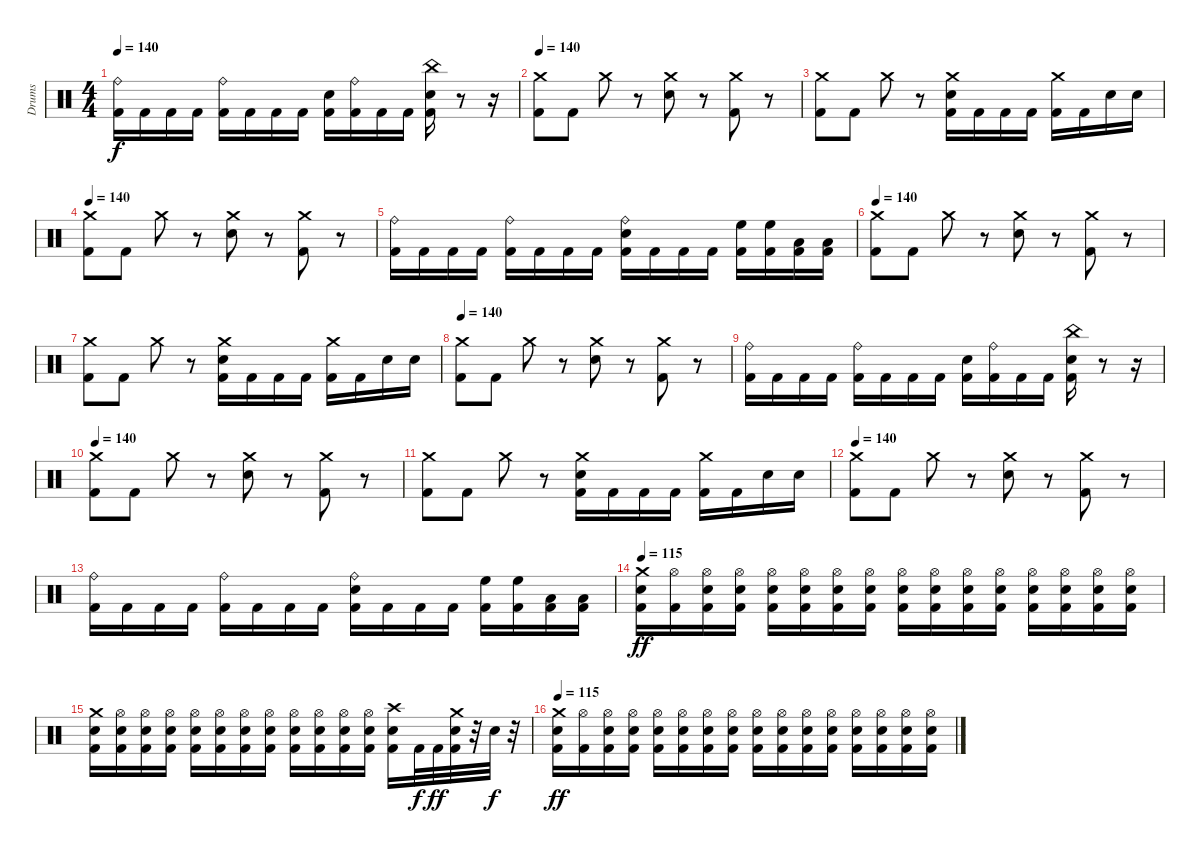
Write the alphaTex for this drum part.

\track ("Drums" "Drums") {instrument percussion}
\staff {score}
\articulation defaults
\ts (4 4)
\tempo 140
\clef neutral
\ks c
("Ride (bell)" "Kick (hit) 2").16{dy f} "Kick (hit) 2".16 "Kick (hit) 2".16 "Kick (hit) 2".16 ("Ride (bell)" "Kick (hit) 2").16 "Kick (hit) 2".16 "Kick (hit) 2".16 "Kick (hit) 2".16 ("Electric Snare (hit)" "Kick (hit) 2").16 ("Ride (bell)" "Kick (hit) 2").16 "Kick (hit) 2".16 "Kick (hit) 2".16 ("China (hit)" "Electric Snare (hit)" "Kick (hit) 2").16 r.8 r.16 |
\tempo 140
("Crash medium (hit)" "Kick (hit) 2").8 "Kick (hit) 2".8 "Crash medium (hit)".8 r.8 ("Crash medium (hit)" "Electric Snare (hit)").8 r.8 ("Crash medium (hit)" "Kick (hit) 2").8 r.8 |
("Crash medium (hit)" "Kick (hit) 2").8 "Kick (hit) 2".8 "Crash medium (hit)".8 r.8 ("Crash medium (hit)" "Electric Snare (hit)" "Kick (hit) 2").16 "Kick (hit) 2".16 "Kick (hit) 2".16 "Kick (hit) 2".16 ("Crash medium (hit)" "Kick (hit) 2").16 "Kick (hit) 2".16 "Electric Snare (hit)".16 "Electric Snare (hit)".16 |
\tempo 140
("Crash medium (hit)" "Kick (hit) 2").8 "Kick (hit) 2".8 "Crash medium (hit)".8 r.8 ("Crash medium (hit)" "Electric Snare (hit)").8 r.8 ("Crash medium (hit)" "Kick (hit) 2").8 r.8 |
("Ride (bell)" "Kick (hit) 2").16 "Kick (hit) 2".16 "Kick (hit) 2".16 "Kick (hit) 2".16 ("Ride (bell)" "Kick (hit) 2").16 "Kick (hit) 2".16 "Kick (hit) 2".16 "Kick (hit) 2".16 ("Ride (bell)" "Electric Snare (hit)" "Kick (hit) 2").16 "Kick (hit) 2".16 "Kick (hit) 2".16 "Kick (hit) 2".16 ("High Floor Tom (hit)" "Kick (hit) 2").16 ("High Floor Tom (hit)" "Kick (hit) 2").16 ("Low Tom (hit)" "Kick (hit) 2").16 ("Low Tom (hit)" "Kick (hit) 2").16 |
\tempo 140
("Crash medium (hit)" "Kick (hit) 2").8 "Kick (hit) 2".8 "Crash medium (hit)".8 r.8 ("Crash medium (hit)" "Electric Snare (hit)").8 r.8 ("Crash medium (hit)" "Kick (hit) 2").8 r.8 |
("Crash medium (hit)" "Kick (hit) 2").8 "Kick (hit) 2".8 "Crash medium (hit)".8 r.8 ("Crash medium (hit)" "Electric Snare (hit)" "Kick (hit) 2").16 "Kick (hit) 2".16 "Kick (hit) 2".16 "Kick (hit) 2".16 ("Crash medium (hit)" "Kick (hit) 2").16 "Kick (hit) 2".16 "Electric Snare (hit)".16 "Electric Snare (hit)".16 |
\tempo 140
("Crash medium (hit)" "Kick (hit) 2").8 "Kick (hit) 2".8 "Crash medium (hit)".8 r.8 ("Crash medium (hit)" "Electric Snare (hit)").8 r.8 ("Crash medium (hit)" "Kick (hit) 2").8 r.8 |
("Ride (bell)" "Kick (hit) 2").16 "Kick (hit) 2".16 "Kick (hit) 2".16 "Kick (hit) 2".16 ("Ride (bell)" "Kick (hit) 2").16 "Kick (hit) 2".16 "Kick (hit) 2".16 "Kick (hit) 2".16 ("Electric Snare (hit)" "Kick (hit) 2").16 ("Ride (bell)" "Kick (hit) 2").16 "Kick (hit) 2".16 "Kick (hit) 2".16 ("China (hit)" "Electric Snare (hit)" "Kick (hit) 2").16 r.8 r.16 |
\tempo 140
("Crash medium (hit)" "Kick (hit) 2").8 "Kick (hit) 2".8 "Crash medium (hit)".8 r.8 ("Crash medium (hit)" "Electric Snare (hit)").8 r.8 ("Crash medium (hit)" "Kick (hit) 2").8 r.8 |
("Crash medium (hit)" "Kick (hit) 2").8 "Kick (hit) 2".8 "Crash medium (hit)".8 r.8 ("Crash medium (hit)" "Electric Snare (hit)" "Kick (hit) 2").16 "Kick (hit) 2".16 "Kick (hit) 2".16 "Kick (hit) 2".16 ("Crash medium (hit)" "Kick (hit) 2").16 "Kick (hit) 2".16 "Electric Snare (hit)".16 "Electric Snare (hit)".16 |
\tempo 140
("Crash medium (hit)" "Kick (hit) 2").8 "Kick (hit) 2".8 "Crash medium (hit)".8 r.8 ("Crash medium (hit)" "Electric Snare (hit)").8 r.8 ("Crash medium (hit)" "Kick (hit) 2").8 r.8 |
("Ride (bell)" "Kick (hit) 2").16 "Kick (hit) 2".16 "Kick (hit) 2".16 "Kick (hit) 2".16 ("Ride (bell)" "Kick (hit) 2").16 "Kick (hit) 2".16 "Kick (hit) 2".16 "Kick (hit) 2".16 ("Ride (bell)" "Electric Snare (hit)" "Kick (hit) 2").16 "Kick (hit) 2".16 "Kick (hit) 2".16 "Kick (hit) 2".16 ("High Floor Tom (hit)" "Kick (hit) 2").16 ("High Floor Tom (hit)" "Kick (hit) 2").16 ("Low Tom (hit)" "Kick (hit) 2").16 ("Low Tom (hit)" "Kick (hit) 2").16 |
\tempo 115
("Crash medium (hit)" "Electric Snare (hit)" "Kick (hit) 2").16{dy ff} ("Hi-Hat (open)" "Kick (hit) 2").16 ("Hi-Hat (open)" "Electric Snare (hit)" "Kick (hit) 2").16 ("Hi-Hat (open)" "Electric Snare (hit)" "Kick (hit) 2").16 ("Hi-Hat (open)" "Electric Snare (hit)" "Kick (hit) 2").16 ("Hi-Hat (open)" "Electric Snare (hit)" "Kick (hit) 2").16 ("Hi-Hat (open)" "Electric Snare (hit)" "Kick (hit) 2").16 ("Hi-Hat (open)" "Electric Snare (hit)" "Kick (hit) 2").16 ("Hi-Hat (open)" "Electric Snare (hit)" "Kick (hit) 2").16 ("Hi-Hat (open)" "Electric Snare (hit)" "Kick (hit) 2").16 ("Hi-Hat (open)" "Electric Snare (hit)" "Kick (hit) 2").16 ("Hi-Hat (open)" "Electric Snare (hit)" "Kick (hit) 2").16 ("Hi-Hat (open)" "Electric Snare (hit)" "Kick (hit) 2").16 ("Hi-Hat (open)" "Electric Snare (hit)" "Kick (hit) 2").16 ("Hi-Hat (open)" "Electric Snare (hit)" "Kick (hit) 2").16 ("Hi-Hat (open)" "Electric Snare (hit)" "Kick (hit) 2").16 |
("Crash medium (hit)" "Electric Snare (hit)" "Kick (hit) 2").16 ("Hi-Hat (open)" "Electric Snare (hit)" "Kick (hit) 2").16 ("Hi-Hat (open)" "Electric Snare (hit)" "Kick (hit) 2").16 ("Hi-Hat (open)" "Electric Snare (hit)" "Kick (hit) 2").16 ("Hi-Hat (open)" "Electric Snare (hit)" "Kick (hit) 2").16 ("Hi-Hat (open)" "Electric Snare (hit)" "Kick (hit) 2").16 ("Hi-Hat (open)" "Electric Snare (hit)" "Kick (hit) 2").16 ("Hi-Hat (open)" "Electric Snare (hit)" "Kick (hit) 2").16 ("Hi-Hat (open)" "Electric Snare (hit)" "Kick (hit) 2").16 ("Hi-Hat (open)" "Electric Snare (hit)" "Kick (hit) 2").16 ("Hi-Hat (open)" "Electric Snare (hit)" "Kick (hit) 2").16 ("Hi-Hat (open)" "Electric Snare (hit)" "Kick (hit) 2").16 ("Crash high (hit)" "Electric Snare (hit)" "Kick (hit) 2").16 "Kick (hit) 2".32{dy f} "Kick (hit) 2".32{dy ff} ("Crash medium (hit)" "Electric Snare (hit)" "Kick (hit) 2").32 r.32 "Electric Snare (hit)".32{dy f} r.32 |
\tempo 115
("Crash medium (hit)" "Electric Snare (hit)" "Kick (hit) 2").16{dy ff} ("Hi-Hat (open)" "Kick (hit) 2").16 ("Hi-Hat (open)" "Electric Snare (hit)" "Kick (hit) 2").16 ("Hi-Hat (open)" "Electric Snare (hit)" "Kick (hit) 2").16 ("Hi-Hat (open)" "Electric Snare (hit)" "Kick (hit) 2").16 ("Hi-Hat (open)" "Electric Snare (hit)" "Kick (hit) 2").16 ("Hi-Hat (open)" "Electric Snare (hit)" "Kick (hit) 2").16 ("Hi-Hat (open)" "Electric Snare (hit)" "Kick (hit) 2").16 ("Hi-Hat (open)" "Electric Snare (hit)" "Kick (hit) 2").16 ("Hi-Hat (open)" "Electric Snare (hit)" "Kick (hit) 2").16 ("Hi-Hat (open)" "Electric Snare (hit)" "Kick (hit) 2").16 ("Hi-Hat (open)" "Electric Snare (hit)" "Kick (hit) 2").16 ("Hi-Hat (open)" "Electric Snare (hit)" "Kick (hit) 2").16 ("Hi-Hat (open)" "Electric Snare (hit)" "Kick (hit) 2").16 ("Hi-Hat (open)" "Electric Snare (hit)" "Kick (hit) 2").16 ("Hi-Hat (open)" "Electric Snare (hit)" "Kick (hit) 2").16
